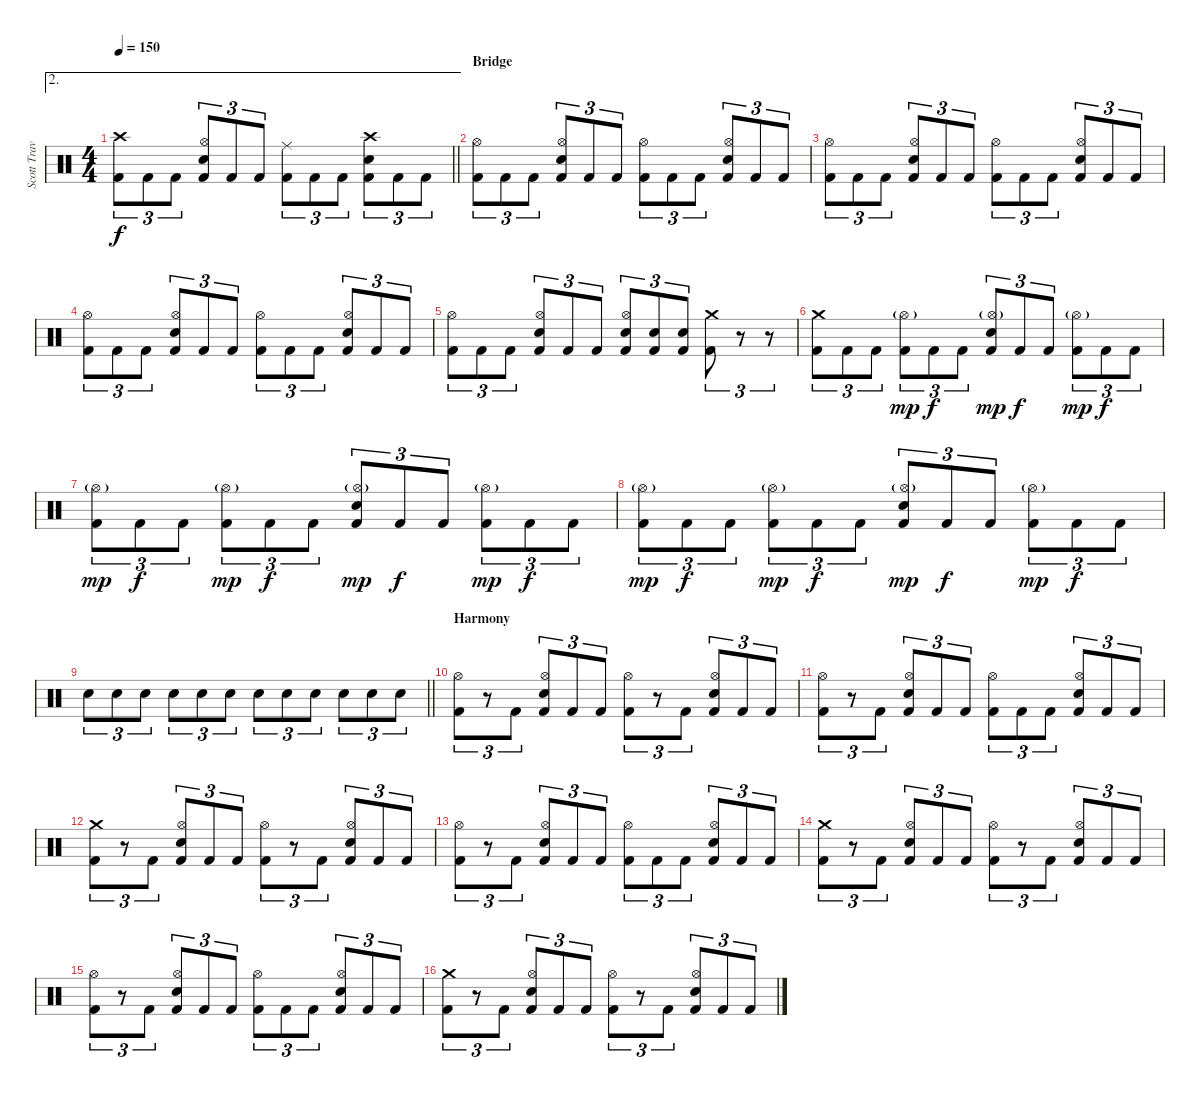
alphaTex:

\track ("Scott Travis" "Scott Trav") {instrument percussion}
\staff {score}
\articulation defaults
\ae 2
\ts (4 4)
\tempo 150
\clef neutral
\barLineRight lightlight
\ks c
("Crash high (hit)" "Kick (hit) 2").8{tu (3 2) dy f} "Kick (hit) 2".8{tu (3 2)} "Kick (hit) 2".8{tu (3 2)} ("Hi-Hat (open)" "Snare (hit) 2" "Kick (hit) 2").8{tu (3 2)} "Kick (hit) 2".8{tu (3 2)} "Kick (hit) 2".8{tu (3 2)} ("Ride (middle)" "Kick (hit) 2").8{tu (3 2)} "Kick (hit) 2".8{tu (3 2)} "Kick (hit) 2".8{tu (3 2)} ("Crash high (hit)" "Snare (hit) 2" "Kick (hit) 2").8{tu (3 2)} "Kick (hit) 2".8{tu (3 2)} "Kick (hit) 2".8{tu (3 2)} |
\section ("" "Bridge")
("Hi-Hat (open)" "Kick (hit) 2").8{tu (3 2)} "Kick (hit) 2".8{tu (3 2)} "Kick (hit) 2".8{tu (3 2)} ("Hi-Hat (open)" "Snare (hit) 2" "Kick (hit) 2").8{tu (3 2)} "Kick (hit) 2".8{tu (3 2)} "Kick (hit) 2".8{tu (3 2)} ("Hi-Hat (open)" "Kick (hit) 2").8{tu (3 2)} "Kick (hit) 2".8{tu (3 2)} "Kick (hit) 2".8{tu (3 2)} ("Hi-Hat (open)" "Snare (hit) 2" "Kick (hit) 2").8{tu (3 2)} "Kick (hit) 2".8{tu (3 2)} "Kick (hit) 2".8{tu (3 2)} |
("Hi-Hat (open)" "Kick (hit) 2").8{tu (3 2)} "Kick (hit) 2".8{tu (3 2)} "Kick (hit) 2".8{tu (3 2)} ("Hi-Hat (open)" "Snare (hit) 2" "Kick (hit) 2").8{tu (3 2)} "Kick (hit) 2".8{tu (3 2)} "Kick (hit) 2".8{tu (3 2)} ("Hi-Hat (open)" "Kick (hit) 2").8{tu (3 2)} "Kick (hit) 2".8{tu (3 2)} "Kick (hit) 2".8{tu (3 2)} ("Hi-Hat (open)" "Snare (hit) 2" "Kick (hit) 2").8{tu (3 2)} "Kick (hit) 2".8{tu (3 2)} "Kick (hit) 2".8{tu (3 2)} |
("Hi-Hat (open)" "Kick (hit) 2").8{tu (3 2)} "Kick (hit) 2".8{tu (3 2)} "Kick (hit) 2".8{tu (3 2)} ("Hi-Hat (open)" "Snare (hit) 2" "Kick (hit) 2").8{tu (3 2)} "Kick (hit) 2".8{tu (3 2)} "Kick (hit) 2".8{tu (3 2)} ("Hi-Hat (open)" "Kick (hit) 2").8{tu (3 2)} "Kick (hit) 2".8{tu (3 2)} "Kick (hit) 2".8{tu (3 2)} ("Hi-Hat (open)" "Snare (hit) 2" "Kick (hit) 2").8{tu (3 2)} "Kick (hit) 2".8{tu (3 2)} "Kick (hit) 2".8{tu (3 2)} |
("Hi-Hat (open)" "Kick (hit) 2").8{tu (3 2)} "Kick (hit) 2".8{tu (3 2)} "Kick (hit) 2".8{tu (3 2)} ("Hi-Hat (open)" "Snare (hit) 2" "Kick (hit) 2").8{tu (3 2)} "Kick (hit) 2".8{tu (3 2)} "Kick (hit) 2".8{tu (3 2)} ("Hi-Hat (open)" "Snare (hit) 2" "Kick (hit) 2").8{tu (3 2)} ("Snare (hit) 2" "Kick (hit) 2").8{tu (3 2)} ("Snare (hit) 2" "Kick (hit) 2").8{tu (3 2)} ("Crash medium (hit)" "Kick (hit) 2").8{tu (3 2)} r.8{tu (3 2)} r.8{tu (3 2)} |
("Crash medium (hit)" "Kick (hit) 2").8{tu (3 2)} "Kick (hit) 2".8{tu (3 2)} "Kick (hit) 2".8{tu (3 2)} ("Hi-Hat (open)"{g} "Kick (hit) 2").8{tu (3 2) dy mp} "Kick (hit) 2".8{tu (3 2) dy f} "Kick (hit) 2".8{tu (3 2)} ("Hi-Hat (open)"{g} "Snare (hit) 2" "Kick (hit) 2").8{tu (3 2) dy mp} "Kick (hit) 2".8{tu (3 2) dy f} "Kick (hit) 2".8{tu (3 2)} ("Hi-Hat (open)"{g} "Kick (hit) 2").8{tu (3 2) dy mp} "Kick (hit) 2".8{tu (3 2) dy f} "Kick (hit) 2".8{tu (3 2)} |
("Hi-Hat (open)"{g} "Kick (hit) 2").8{tu (3 2) dy mp} "Kick (hit) 2".8{tu (3 2) dy f} "Kick (hit) 2".8{tu (3 2)} ("Hi-Hat (open)"{g} "Kick (hit) 2").8{tu (3 2) dy mp} "Kick (hit) 2".8{tu (3 2) dy f} "Kick (hit) 2".8{tu (3 2)} ("Hi-Hat (open)"{g} "Snare (hit) 2" "Kick (hit) 2").8{tu (3 2) dy mp} "Kick (hit) 2".8{tu (3 2) dy f} "Kick (hit) 2".8{tu (3 2)} ("Hi-Hat (open)"{g} "Kick (hit) 2").8{tu (3 2) dy mp} "Kick (hit) 2".8{tu (3 2) dy f} "Kick (hit) 2".8{tu (3 2)} |
("Hi-Hat (open)"{g} "Kick (hit) 2").8{tu (3 2) dy mp} "Kick (hit) 2".8{tu (3 2) dy f} "Kick (hit) 2".8{tu (3 2)} ("Hi-Hat (open)"{g} "Kick (hit) 2").8{tu (3 2) dy mp} "Kick (hit) 2".8{tu (3 2) dy f} "Kick (hit) 2".8{tu (3 2)} ("Hi-Hat (open)"{g} "Snare (hit) 2" "Kick (hit) 2").8{tu (3 2) dy mp} "Kick (hit) 2".8{tu (3 2) dy f} "Kick (hit) 2".8{tu (3 2)} ("Hi-Hat (open)"{g} "Kick (hit) 2").8{tu (3 2) dy mp} "Kick (hit) 2".8{tu (3 2) dy f} "Kick (hit) 2".8{tu (3 2)} |
\barLineRight lightlight "Snare (hit) 2".8{tu (3 2)} "Snare (hit) 2".8{tu (3 2)} "Snare (hit) 2".8{tu (3 2)} "Snare (hit) 2".8{tu (3 2)} "Snare (hit) 2".8{tu (3 2)} "Snare (hit) 2".8{tu (3 2)} "Snare (hit) 2".8{tu (3 2)} "Snare (hit) 2".8{tu (3 2)} "Snare (hit) 2".8{tu (3 2)} "Snare (hit) 2".8{tu (3 2)} "Snare (hit) 2".8{tu (3 2)} "Snare (hit) 2".8{tu (3 2)}
|
\section ("" "Harmony")
("Hi-Hat (open)" "Kick (hit) 2").8{tu (3 2)} r.8{tu (3 2)} "Kick (hit) 2".8{tu (3 2)} ("Hi-Hat (open)" "Snare (hit) 2" "Kick (hit) 2").8{tu (3 2)} "Kick (hit) 2".8{tu (3 2)} "Kick (hit) 2".8{tu (3 2)} ("Hi-Hat (open)" "Kick (hit) 2").8{tu (3 2)} r.8{tu (3 2)} "Kick (hit) 2".8{tu (3 2)} ("Hi-Hat (open)" "Snare (hit) 2" "Kick (hit) 2").8{tu (3 2)} "Kick (hit) 2".8{tu (3 2)} "Kick (hit) 2".8{tu (3 2)} |
("Hi-Hat (open)" "Kick (hit) 2").8{tu (3 2)} r.8{tu (3 2)} "Kick (hit) 2".8{tu (3 2)} ("Hi-Hat (open)" "Snare (hit) 2" "Kick (hit) 2").8{tu (3 2)} "Kick (hit) 2".8{tu (3 2)} "Kick (hit) 2".8{tu (3 2)} ("Hi-Hat (open)" "Kick (hit) 2").8{tu (3 2)} "Kick (hit) 2".8{tu (3 2)} "Kick (hit) 2".8{tu (3 2)} ("Hi-Hat (open)" "Snare (hit) 2" "Kick (hit) 2").8{tu (3 2)} "Kick (hit) 2".8{tu (3 2)} "Kick (hit) 2".8{tu (3 2)} |
("Crash medium (hit)" "Kick (hit) 2").8{tu (3 2)} r.8{tu (3 2)} "Kick (hit) 2".8{tu (3 2)} ("Hi-Hat (open)" "Snare (hit) 2" "Kick (hit) 2").8{tu (3 2)} "Kick (hit) 2".8{tu (3 2)} "Kick (hit) 2".8{tu (3 2)} ("Hi-Hat (open)" "Kick (hit) 2").8{tu (3 2)} r.8{tu (3 2)} "Kick (hit) 2".8{tu (3 2)} ("Hi-Hat (open)" "Snare (hit) 2" "Kick (hit) 2").8{tu (3 2)} "Kick (hit) 2".8{tu (3 2)} "Kick (hit) 2".8{tu (3 2)} |
("Hi-Hat (open)" "Kick (hit) 2").8{tu (3 2)} r.8{tu (3 2)} "Kick (hit) 2".8{tu (3 2)} ("Hi-Hat (open)" "Snare (hit) 2" "Kick (hit) 2").8{tu (3 2)} "Kick (hit) 2".8{tu (3 2)} "Kick (hit) 2".8{tu (3 2)} ("Hi-Hat (open)" "Kick (hit) 2").8{tu (3 2)} "Kick (hit) 2".8{tu (3 2)} "Kick (hit) 2".8{tu (3 2)} ("Hi-Hat (open)" "Snare (hit) 2" "Kick (hit) 2").8{tu (3 2)} "Kick (hit) 2".8{tu (3 2)} "Kick (hit) 2".8{tu (3 2)} |
("Crash medium (hit)" "Kick (hit) 2").8{tu (3 2)} r.8{tu (3 2)} "Kick (hit) 2".8{tu (3 2)} ("Hi-Hat (open)" "Snare (hit) 2" "Kick (hit) 2").8{tu (3 2)} "Kick (hit) 2".8{tu (3 2)} "Kick (hit) 2".8{tu (3 2)} ("Hi-Hat (open)" "Kick (hit) 2").8{tu (3 2)} r.8{tu (3 2)} "Kick (hit) 2".8{tu (3 2)} ("Hi-Hat (open)" "Snare (hit) 2" "Kick (hit) 2").8{tu (3 2)} "Kick (hit) 2".8{tu (3 2)} "Kick (hit) 2".8{tu (3 2)} |
("Hi-Hat (open)" "Kick (hit) 2").8{tu (3 2)} r.8{tu (3 2)} "Kick (hit) 2".8{tu (3 2)} ("Hi-Hat (open)" "Snare (hit) 2" "Kick (hit) 2").8{tu (3 2)} "Kick (hit) 2".8{tu (3 2)} "Kick (hit) 2".8{tu (3 2)} ("Hi-Hat (open)" "Kick (hit) 2").8{tu (3 2)} "Kick (hit) 2".8{tu (3 2)} "Kick (hit) 2".8{tu (3 2)} ("Hi-Hat (open)" "Snare (hit) 2" "Kick (hit) 2").8{tu (3 2)} "Kick (hit) 2".8{tu (3 2)} "Kick (hit) 2".8{tu (3 2)} |
("Crash medium (hit)" "Kick (hit) 2").8{tu (3 2)} r.8{tu (3 2)} "Kick (hit) 2".8{tu (3 2)} ("Hi-Hat (open)" "Snare (hit) 2" "Kick (hit) 2").8{tu (3 2)} "Kick (hit) 2".8{tu (3 2)} "Kick (hit) 2".8{tu (3 2)} ("Hi-Hat (open)" "Kick (hit) 2").8{tu (3 2)} r.8{tu (3 2)} "Kick (hit) 2".8{tu (3 2)} ("Hi-Hat (open)" "Snare (hit) 2" "Kick (hit) 2").8{tu (3 2)} "Kick (hit) 2".8{tu (3 2)} "Kick (hit) 2".8{tu (3 2)}
